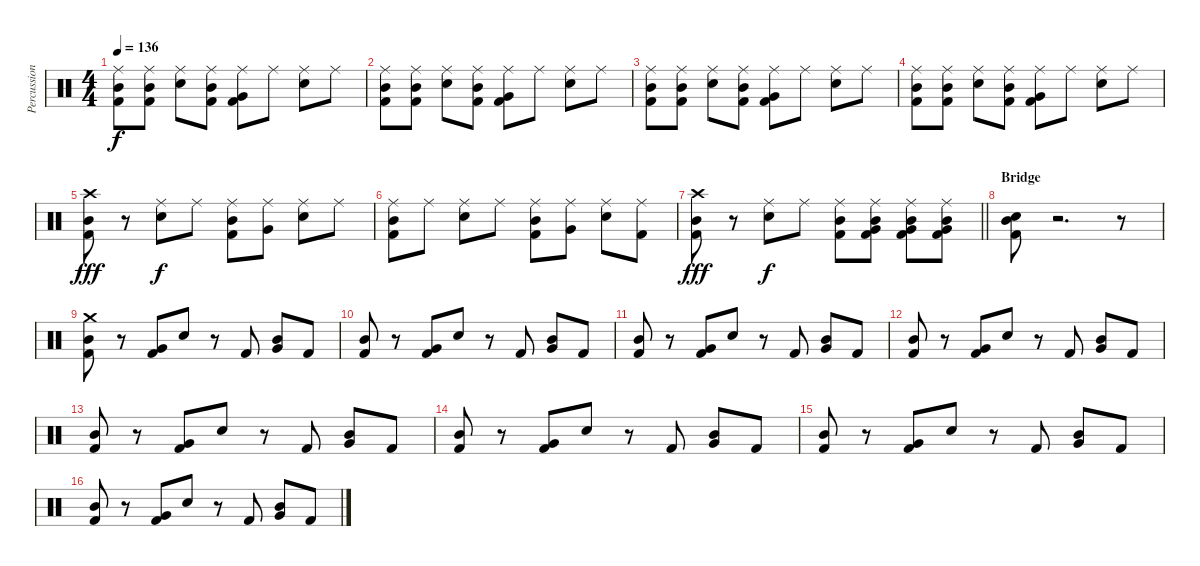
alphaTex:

\track ("Percussion" "Percussion") {instrument percussion}
\staff {score}
\articulation defaults
\ts (4 4)
\tempo 136
\clef neutral
\ks c
("Ride (middle)" "Mid Tom (hit)" "Kick (hit) 2").8{dy f} ("Ride (middle)" "Mid Tom (hit)" "Kick (hit) 2").8 ("Ride (middle)" "Snare (hit) 2").8 ("Ride (middle)" "Mid Tom (hit)" "Kick (hit) 2").8 ("Ride (middle)" "Very Low Tom (hit)" "Kick (hit) 2").8 "Ride (middle)".8 ("Ride (middle)" "Snare (hit) 2").8 "Ride (middle)".8 |
("Ride (middle)" "Mid Tom (hit)" "Kick (hit) 2").8 ("Ride (middle)" "Mid Tom (hit)" "Kick (hit) 2").8 ("Ride (middle)" "Snare (hit) 2").8 ("Ride (middle)" "Mid Tom (hit)" "Kick (hit) 2").8 ("Ride (middle)" "Very Low Tom (hit)" "Kick (hit) 2").8 "Ride (middle)".8 ("Ride (middle)" "Snare (hit) 2").8 "Ride (middle)".8 |
("Ride (middle)" "Mid Tom (hit)" "Kick (hit) 2").8 ("Ride (middle)" "Mid Tom (hit)" "Kick (hit) 2").8 ("Ride (middle)" "Snare (hit) 2").8 ("Ride (middle)" "Mid Tom (hit)" "Kick (hit) 2").8 ("Ride (middle)" "Very Low Tom (hit)" "Kick (hit) 2").8 "Ride (middle)".8 ("Ride (middle)" "Snare (hit) 2").8 "Ride (middle)".8 |
("Ride (middle)" "Mid Tom (hit)" "Kick (hit) 2").8 ("Ride (middle)" "Mid Tom (hit)" "Kick (hit) 2").8 ("Ride (middle)" "Snare (hit) 2").8 ("Ride (middle)" "Mid Tom (hit)" "Kick (hit) 2").8 ("Ride (middle)" "Very Low Tom (hit)" "Kick (hit) 2").8 "Ride (middle)".8 ("Ride (middle)" "Snare (hit) 2").8 "Ride (middle)".8 |
("Crash high (hit)" "Mid Tom (hit)" "Kick (hit) 2").8{dy fff} r.8 ("Ride (middle)" "Snare (hit) 2").8{dy f} "Ride (middle)".8 ("Ride (middle)" "Mid Tom (hit)" "Kick (hit) 2").8 ("Ride (middle)" "Very Low Tom (hit)").8 ("Ride (middle)" "Snare (hit) 2").8 "Ride (middle)".8 |
("Ride (middle)" "Mid Tom (hit)" "Kick (hit) 2").8 "Ride (middle)".8 ("Ride (middle)" "Snare (hit) 2").8 "Ride (middle)".8 ("Ride (middle)" "Mid Tom (hit)" "Kick (hit) 2").8 ("Ride (middle)" "Very Low Tom (hit)").8 ("Ride (middle)" "Snare (hit) 2").8 ("Ride (middle)" "Kick (hit) 2").8 |
\barLineRight lightlight
("Crash high (hit)" "Mid Tom (hit)" "Kick (hit) 2").8{dy fff} r.8 ("Ride (middle)" "Snare (hit) 2").8{dy f} "Ride (middle)".8 ("Ride (middle)" "Mid Tom (hit)" "Kick (hit) 2").8 ("Ride (middle)" "Mid Tom (hit)" "Very Low Tom (hit)" "Kick (hit) 2").8 ("Ride (middle)" "Mid Tom (hit)" "Very Low Tom (hit)" "Kick (hit) 2").8 ("Ride (middle)" "Mid Tom (hit)" "Very Low Tom (hit)" "Kick (hit) 2").8 |
\section ("" "Bridge")
("Mid Tom (hit)" "Snare (hit) 2" "Kick (hit) 2").8 r.2{d} r.8 |
("Crash medium (hit)" "Mid Tom (hit)" "Kick (hit) 2").8 r.8 ("Very Low Tom (hit)" "Kick (hit) 2").8 "Snare (hit) 2".8 r.8 "Kick (hit) 2".8 ("Mid Tom (hit)" "Very Low Tom (hit)").8 "Kick (hit) 2".8 |
("Mid Tom (hit)" "Kick (hit) 2").8 r.8 ("Very Low Tom (hit)" "Kick (hit) 2").8 "Snare (hit) 2".8 r.8 "Kick (hit) 2".8 ("Mid Tom (hit)" "Very Low Tom (hit)").8 "Kick (hit) 2".8 |
("Mid Tom (hit)" "Kick (hit) 2").8 r.8 ("Very Low Tom (hit)" "Kick (hit) 2").8 "Snare (hit) 2".8 r.8 "Kick (hit) 2".8 ("Mid Tom (hit)" "Very Low Tom (hit)").8 "Kick (hit) 2".8 |
("Mid Tom (hit)" "Kick (hit) 2").8 r.8 ("Very Low Tom (hit)" "Kick (hit) 2").8 "Snare (hit) 2".8 r.8 "Kick (hit) 2".8 ("Mid Tom (hit)" "Very Low Tom (hit)").8 "Kick (hit) 2".8 |
("Mid Tom (hit)" "Kick (hit) 2").8 r.8 ("Very Low Tom (hit)" "Kick (hit) 2").8 "Snare (hit) 2".8 r.8 "Kick (hit) 2".8 ("Mid Tom (hit)" "Very Low Tom (hit)").8 "Kick (hit) 2".8 |
("Mid Tom (hit)" "Kick (hit) 2").8 r.8 ("Very Low Tom (hit)" "Kick (hit) 2").8 "Snare (hit) 2".8 r.8 "Kick (hit) 2".8 ("Mid Tom (hit)" "Very Low Tom (hit)").8 "Kick (hit) 2".8 |
("Mid Tom (hit)" "Kick (hit) 2").8 r.8 ("Very Low Tom (hit)" "Kick (hit) 2").8 "Snare (hit) 2".8 r.8 "Kick (hit) 2".8 ("Mid Tom (hit)" "Very Low Tom (hit)").8 "Kick (hit) 2".8 |
("Mid Tom (hit)" "Kick (hit) 2").8 r.8 ("Very Low Tom (hit)" "Kick (hit) 2").8 "Snare (hit) 2".8 r.8 "Kick (hit) 2".8 ("Mid Tom (hit)" "Very Low Tom (hit)").8 "Kick (hit) 2".8
